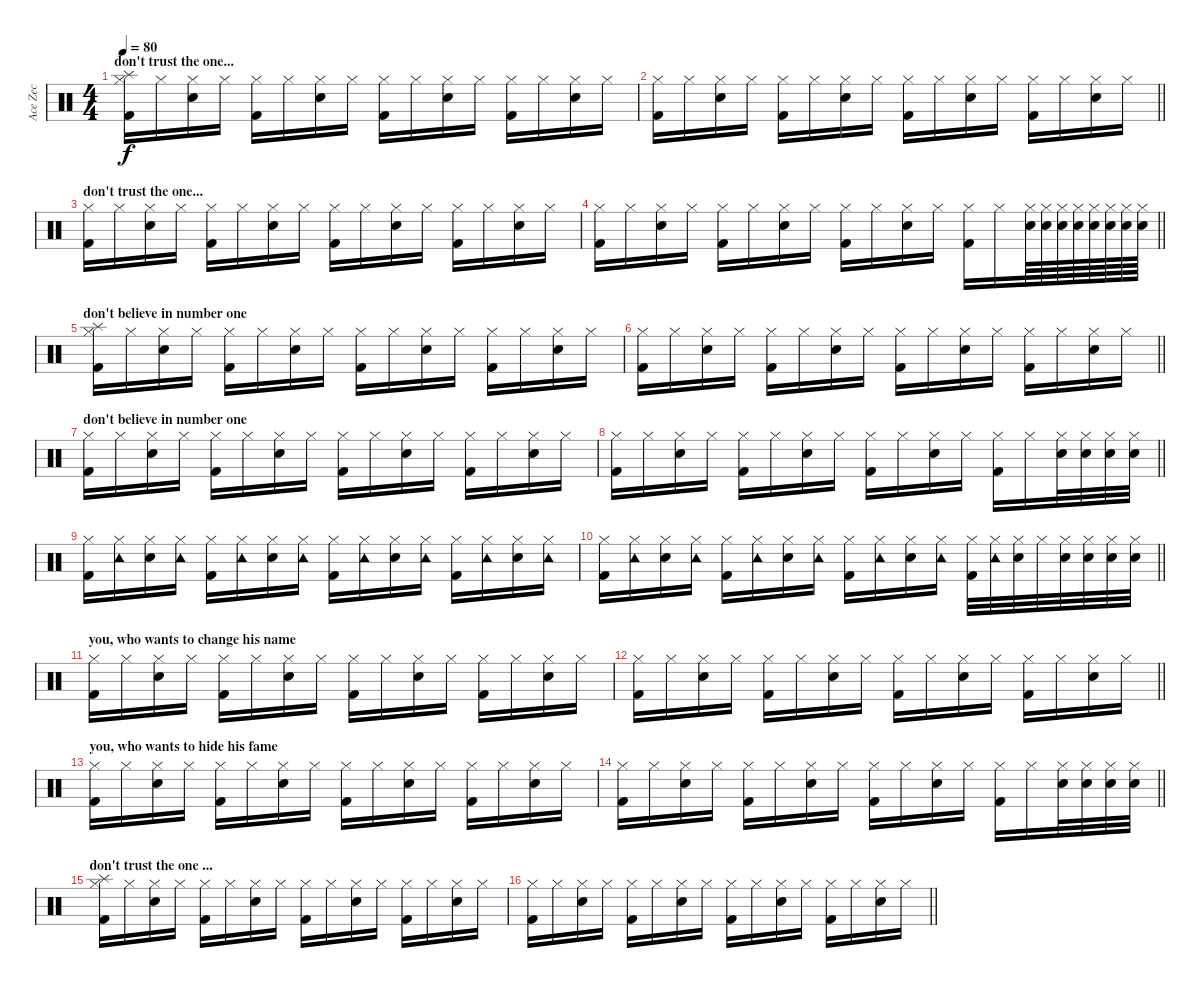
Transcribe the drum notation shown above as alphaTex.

\track ("Ace Zec" "Ace Zec") {instrument percussion}
\staff {score}
\articulation defaults
\ts (4 4)
\section ("" "don't trust the one...")
\tempo 80
\clef neutral
\ks c
("Hi-Hat (closed)" "Kick (hit) 2" "Splash (hit)").16{dy f} "Hi-Hat (closed)".16 ("Hi-Hat (closed)" "Snare (hit) 2").16 "Hi-Hat (closed)".16 ("Hi-Hat (closed)" "Kick (hit) 2").16 "Hi-Hat (closed)".16 ("Hi-Hat (closed)" "Snare (hit) 2").16 "Hi-Hat (closed)".16 ("Hi-Hat (closed)" "Kick (hit) 2").16 "Hi-Hat (closed)".16 ("Hi-Hat (closed)" "Snare (hit) 2").16 "Hi-Hat (closed)".16 ("Hi-Hat (closed)" "Kick (hit) 2").16 "Hi-Hat (closed)".16 ("Hi-Hat (closed)" "Snare (hit) 2").16 "Hi-Hat (closed)".16 |
\barLineRight lightlight
("Hi-Hat (closed)" "Kick (hit) 2").16 "Hi-Hat (closed)".16 ("Hi-Hat (closed)" "Snare (hit) 2").16 "Hi-Hat (closed)".16 ("Hi-Hat (closed)" "Kick (hit) 2").16 "Hi-Hat (closed)".16 ("Hi-Hat (closed)" "Snare (hit) 2").16 "Hi-Hat (closed)".16 ("Hi-Hat (closed)" "Kick (hit) 2").16 "Hi-Hat (closed)".16 ("Hi-Hat (closed)" "Snare (hit) 2").16 "Hi-Hat (closed)".16 ("Hi-Hat (closed)" "Kick (hit) 2").16 "Hi-Hat (closed)".16 ("Hi-Hat (closed)" "Snare (hit) 2").16 "Hi-Hat (closed)".16 |
\section ("" "don't trust the one...")
("Hi-Hat (closed)" "Kick (hit) 2").16 "Hi-Hat (closed)".16 ("Hi-Hat (closed)" "Snare (hit) 2").16 "Hi-Hat (closed)".16 ("Hi-Hat (closed)" "Kick (hit) 2").16 "Hi-Hat (closed)".16 ("Hi-Hat (closed)" "Snare (hit) 2").16 "Hi-Hat (closed)".16 ("Hi-Hat (closed)" "Kick (hit) 2").16 "Hi-Hat (closed)".16 ("Hi-Hat (closed)" "Snare (hit) 2").16 "Hi-Hat (closed)".16 ("Hi-Hat (closed)" "Kick (hit) 2").16 "Hi-Hat (closed)".16 ("Hi-Hat (closed)" "Snare (hit) 2").16 "Hi-Hat (closed)".16 |
\barLineRight lightlight
("Hi-Hat (closed)" "Kick (hit) 2").16 "Hi-Hat (closed)".16 ("Hi-Hat (closed)" "Snare (hit) 2").16 "Hi-Hat (closed)".16 ("Hi-Hat (closed)" "Kick (hit) 2").16 "Hi-Hat (closed)".16 ("Hi-Hat (closed)" "Snare (hit) 2").16 "Hi-Hat (closed)".16 ("Hi-Hat (closed)" "Kick (hit) 2").16 "Hi-Hat (closed)".16 ("Hi-Hat (closed)" "Snare (hit) 2").16 "Hi-Hat (closed)".16 ("Hi-Hat (closed)" "Kick (hit) 2").16 "Hi-Hat (closed)".16 ("Hi-Hat (closed)" "Snare (hit) 2").64 ("Hi-Hat (closed)" "Snare (hit) 2").64 ("Hi-Hat (closed)" "Snare (hit) 2").64 ("Hi-Hat (closed)" "Snare (hit) 2").64 ("Hi-Hat (closed)" "Snare (hit) 2").64 ("Hi-Hat (closed)" "Snare (hit) 2").64 ("Hi-Hat (closed)" "Snare (hit) 2").64 ("Hi-Hat (closed)" "Snare (hit) 2").64 |
\section ("" "don't believe in number one")
("Hi-Hat (closed)" "Kick (hit) 2" "Splash (hit)").16 "Hi-Hat (closed)".16 ("Hi-Hat (closed)" "Snare (hit) 2").16 "Hi-Hat (closed)".16 ("Hi-Hat (closed)" "Kick (hit) 2").16 "Hi-Hat (closed)".16 ("Hi-Hat (closed)" "Snare (hit) 2").16 "Hi-Hat (closed)".16 ("Hi-Hat (closed)" "Kick (hit) 2").16 "Hi-Hat (closed)".16 ("Hi-Hat (closed)" "Snare (hit) 2").16 "Hi-Hat (closed)".16 ("Hi-Hat (closed)" "Kick (hit) 2").16 "Hi-Hat (closed)".16 ("Hi-Hat (closed)" "Snare (hit) 2").16 "Hi-Hat (closed)".16 |
\barLineRight lightlight
("Hi-Hat (closed)" "Kick (hit) 2").16 "Hi-Hat (closed)".16 ("Hi-Hat (closed)" "Snare (hit) 2").16 "Hi-Hat (closed)".16 ("Hi-Hat (closed)" "Kick (hit) 2").16 "Hi-Hat (closed)".16 ("Hi-Hat (closed)" "Snare (hit) 2").16 "Hi-Hat (closed)".16 ("Hi-Hat (closed)" "Kick (hit) 2").16 "Hi-Hat (closed)".16 ("Hi-Hat (closed)" "Snare (hit) 2").16 "Hi-Hat (closed)".16 ("Hi-Hat (closed)" "Kick (hit) 2").16 "Hi-Hat (closed)".16 ("Hi-Hat (closed)" "Snare (hit) 2").16 "Hi-Hat (closed)".16 |
\section ("" "don't believe in number one")
("Hi-Hat (closed)" "Kick (hit) 2").16 "Hi-Hat (closed)".16 ("Hi-Hat (closed)" "Snare (hit) 2").16 "Hi-Hat (closed)".16 ("Hi-Hat (closed)" "Kick (hit) 2").16 "Hi-Hat (closed)".16 ("Hi-Hat (closed)" "Snare (hit) 2").16 "Hi-Hat (closed)".16 ("Hi-Hat (closed)" "Kick (hit) 2").16 "Hi-Hat (closed)".16 ("Hi-Hat (closed)" "Snare (hit) 2").16 "Hi-Hat (closed)".16 ("Hi-Hat (closed)" "Kick (hit) 2").16 "Hi-Hat (closed)".16 ("Hi-Hat (closed)" "Snare (hit) 2").16 "Hi-Hat (closed)".16 |
\barLineRight lightlight
("Hi-Hat (closed)" "Kick (hit) 2").16 "Hi-Hat (closed)".16 ("Hi-Hat (closed)" "Snare (hit) 2").16 "Hi-Hat (closed)".16 ("Hi-Hat (closed)" "Kick (hit) 2").16 "Hi-Hat (closed)".16 ("Hi-Hat (closed)" "Snare (hit) 2").16 "Hi-Hat (closed)".16 ("Hi-Hat (closed)" "Kick (hit) 2").16 "Hi-Hat (closed)".16 ("Hi-Hat (closed)" "Snare (hit) 2").16 "Hi-Hat (closed)".16 ("Hi-Hat (closed)" "Kick (hit) 2").16 "Hi-Hat (closed)".16 ("Hi-Hat (closed)" "Snare (hit) 2").32 ("Hi-Hat (closed)" "Snare (hit) 2").32 ("Hi-Hat (closed)" "Snare (hit) 2").32 ("Hi-Hat (closed)" "Snare (hit) 2").32 |
("Hi-Hat (closed)" "Kick (hit) 2").16 ("Hi-Hat (closed)" "Tambourine (hit)").16 ("Hi-Hat (closed)" "Snare (hit) 2").16 ("Hi-Hat (closed)" "Tambourine (hit)").16 ("Hi-Hat (closed)" "Kick (hit) 2").16 ("Hi-Hat (closed)" "Tambourine (hit)").16 ("Hi-Hat (closed)" "Snare (hit) 2").16 ("Hi-Hat (closed)" "Tambourine (hit)").16 ("Hi-Hat (closed)" "Kick (hit) 2").16 ("Hi-Hat (closed)" "Tambourine (hit)").16 ("Hi-Hat (closed)" "Snare (hit) 2").16 ("Hi-Hat (closed)" "Tambourine (hit)").16 ("Hi-Hat (closed)" "Kick (hit) 2").16 ("Hi-Hat (closed)" "Tambourine (hit)").16 ("Hi-Hat (closed)" "Snare (hit) 2").16 ("Hi-Hat (closed)" "Tambourine (hit)").16 |
\barLineRight lightlight
("Hi-Hat (closed)" "Kick (hit) 2").16 ("Hi-Hat (closed)" "Tambourine (hit)").16 ("Hi-Hat (closed)" "Snare (hit) 2").16 ("Hi-Hat (closed)" "Tambourine (hit)").16 ("Hi-Hat (closed)" "Kick (hit) 2").16 ("Hi-Hat (closed)" "Tambourine (hit)").16 ("Hi-Hat (closed)" "Snare (hit) 2").16 ("Hi-Hat (closed)" "Tambourine (hit)").16 ("Hi-Hat (closed)" "Kick (hit) 2").16 ("Hi-Hat (closed)" "Tambourine (hit)").16 ("Hi-Hat (closed)" "Snare (hit) 2").16 ("Hi-Hat (closed)" "Tambourine (hit)").16 ("Hi-Hat (closed)" "Kick (hit) 2").32 ("Hi-Hat (closed)" "Tambourine (hit)").32 ("Hi-Hat (closed)" "Snare (hit) 2").32 "Hi-Hat (closed)".32 ("Hi-Hat (closed)" "Snare (hit) 2").32 ("Hi-Hat (closed)" "Snare (hit) 2").32 ("Hi-Hat (closed)" "Snare (hit) 2").32 ("Hi-Hat (closed)" "Snare (hit) 2").32 |
\section ("" "you, who wants to change his name")
("Hi-Hat (closed)" "Kick (hit) 2").16 "Hi-Hat (closed)".16 ("Hi-Hat (closed)" "Snare (hit) 2").16 "Hi-Hat (closed)".16 ("Hi-Hat (closed)" "Kick (hit) 2").16 "Hi-Hat (closed)".16 ("Hi-Hat (closed)" "Snare (hit) 2").16 "Hi-Hat (closed)".16 ("Hi-Hat (closed)" "Kick (hit) 2").16 "Hi-Hat (closed)".16 ("Hi-Hat (closed)" "Snare (hit) 2").16 "Hi-Hat (closed)".16 ("Hi-Hat (closed)" "Kick (hit) 2").16 "Hi-Hat (closed)".16 ("Hi-Hat (closed)" "Snare (hit) 2").16 "Hi-Hat (closed)".16 |
\barLineRight lightlight
("Hi-Hat (closed)" "Kick (hit) 2").16 "Hi-Hat (closed)".16 ("Hi-Hat (closed)" "Snare (hit) 2").16 "Hi-Hat (closed)".16 ("Hi-Hat (closed)" "Kick (hit) 2").16 "Hi-Hat (closed)".16 ("Hi-Hat (closed)" "Snare (hit) 2").16 "Hi-Hat (closed)".16 ("Hi-Hat (closed)" "Kick (hit) 2").16 "Hi-Hat (closed)".16 ("Hi-Hat (closed)" "Snare (hit) 2").16 "Hi-Hat (closed)".16 ("Hi-Hat (closed)" "Kick (hit) 2").16 "Hi-Hat (closed)".16 ("Hi-Hat (closed)" "Snare (hit) 2").16 "Hi-Hat (closed)".16 |
\section ("" "you, who wants to hide his fame")
("Hi-Hat (closed)" "Kick (hit) 2").16 "Hi-Hat (closed)".16 ("Hi-Hat (closed)" "Snare (hit) 2").16 "Hi-Hat (closed)".16 ("Hi-Hat (closed)" "Kick (hit) 2").16 "Hi-Hat (closed)".16 ("Hi-Hat (closed)" "Snare (hit) 2").16 "Hi-Hat (closed)".16 ("Hi-Hat (closed)" "Kick (hit) 2").16 "Hi-Hat (closed)".16 ("Hi-Hat (closed)" "Snare (hit) 2").16 "Hi-Hat (closed)".16 ("Hi-Hat (closed)" "Kick (hit) 2").16 "Hi-Hat (closed)".16 ("Hi-Hat (closed)" "Snare (hit) 2").16 "Hi-Hat (closed)".16 |
\barLineRight lightlight
("Hi-Hat (closed)" "Kick (hit) 2").16 "Hi-Hat (closed)".16 ("Hi-Hat (closed)" "Snare (hit) 2").16 "Hi-Hat (closed)".16 ("Hi-Hat (closed)" "Kick (hit) 2").16 "Hi-Hat (closed)".16 ("Hi-Hat (closed)" "Snare (hit) 2").16 "Hi-Hat (closed)".16 ("Hi-Hat (closed)" "Kick (hit) 2").16 "Hi-Hat (closed)".16 ("Hi-Hat (closed)" "Snare (hit) 2").16 "Hi-Hat (closed)".16 ("Hi-Hat (closed)" "Kick (hit) 2").16 "Hi-Hat (closed)".16 ("Hi-Hat (closed)" "Snare (hit) 2").32 ("Hi-Hat (closed)" "Snare (hit) 2").32 ("Hi-Hat (closed)" "Snare (hit) 2").32 ("Hi-Hat (closed)" "Snare (hit) 2").32 |
\section ("" "don't trust the one ...")
("Hi-Hat (closed)" "Kick (hit) 2" "Splash (hit)").16 "Hi-Hat (closed)".16 ("Hi-Hat (closed)" "Snare (hit) 2").16 "Hi-Hat (closed)".16 ("Hi-Hat (closed)" "Kick (hit) 2").16 "Hi-Hat (closed)".16 ("Hi-Hat (closed)" "Snare (hit) 2").16 "Hi-Hat (closed)".16 ("Hi-Hat (closed)" "Kick (hit) 2").16 "Hi-Hat (closed)".16 ("Hi-Hat (closed)" "Snare (hit) 2").16 "Hi-Hat (closed)".16 ("Hi-Hat (closed)" "Kick (hit) 2").16 "Hi-Hat (closed)".16 ("Hi-Hat (closed)" "Snare (hit) 2").16 "Hi-Hat (closed)".16 |
\barLineRight lightlight
("Hi-Hat (closed)" "Kick (hit) 2").16 "Hi-Hat (closed)".16 ("Hi-Hat (closed)" "Snare (hit) 2").16 "Hi-Hat (closed)".16 ("Hi-Hat (closed)" "Kick (hit) 2").16 "Hi-Hat (closed)".16 ("Hi-Hat (closed)" "Snare (hit) 2").16 "Hi-Hat (closed)".16 ("Hi-Hat (closed)" "Kick (hit) 2").16 "Hi-Hat (closed)".16 ("Hi-Hat (closed)" "Snare (hit) 2").16 "Hi-Hat (closed)".16 ("Hi-Hat (closed)" "Kick (hit) 2").16 "Hi-Hat (closed)".16 ("Hi-Hat (closed)" "Snare (hit) 2").16 "Hi-Hat (closed)".16
